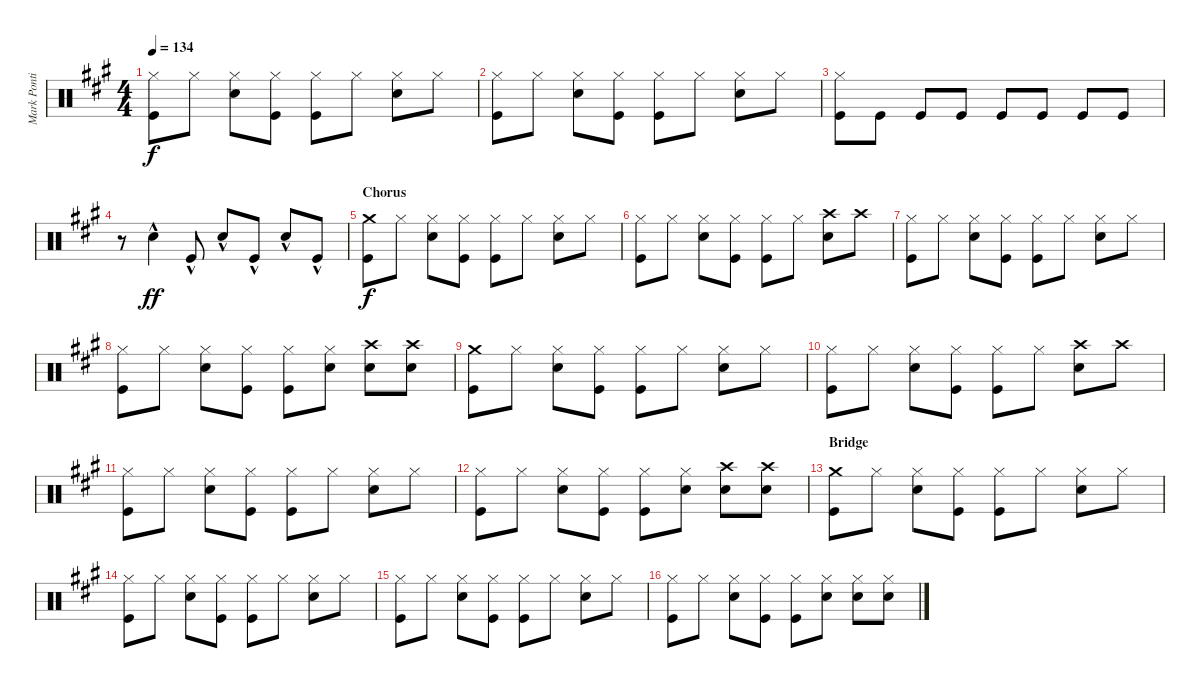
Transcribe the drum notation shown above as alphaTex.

\track ("Mark Pontius" "Mark Ponti") {instrument percussion}
\staff {score}
\articulation defaults
\ts (4 4)
\tempo 134
\clef neutral
\ks a
("Kick (hit)" "Hi-Hat (closed)").8{dy f} "Hi-Hat (closed)".8 ("Hi-Hat (closed)" "Snare (hit) 2").8 ("Hi-Hat (closed)" "Kick (hit)").8 ("Hi-Hat (closed)" "Kick (hit)").8 "Hi-Hat (closed)".8 ("Hi-Hat (closed)" "Snare (hit) 2").8 "Hi-Hat (closed)".8 |
("Hi-Hat (closed)" "Kick (hit)").8 "Hi-Hat (closed)".8 ("Hi-Hat (closed)" "Snare (hit) 2").8 ("Hi-Hat (closed)" "Kick (hit)").8 ("Hi-Hat (closed)" "Kick (hit)").8 "Hi-Hat (closed)".8 ("Hi-Hat (closed)" "Snare (hit) 2").8 "Hi-Hat (closed)".8 |
("Kick (hit)" "Hi-Hat (closed)").8 "Kick (hit)".8 "Kick (hit)".8 "Kick (hit)".8 "Kick (hit)".8 "Kick (hit)".8 "Kick (hit)".8 "Kick (hit)".8 |
r.8 "Snare (hit) 2"{hac}.4{dy ff} "Kick (hit)"{hac}.8 "Snare (hit) 2"{hac}.8 "Kick (hit)"{hac}.8 "Snare (hit) 2"{hac}.8 "Kick (hit)"{hac}.8 |
\section ("" "Chorus")
("Crash medium (hit)" "Kick (hit)").8{dy f} "Hi-Hat (closed)".8 ("Hi-Hat (closed)" "Snare (hit) 2").8 ("Hi-Hat (closed)" "Kick (hit)").8 ("Hi-Hat (closed)" "Kick (hit)").8 "Hi-Hat (closed)".8 ("Hi-Hat (closed)" "Snare (hit) 2").8 "Hi-Hat (closed)".8 |
("Hi-Hat (closed)" "Kick (hit)").8 "Hi-Hat (closed)".8 ("Hi-Hat (closed)" "Snare (hit) 2").8 ("Hi-Hat (closed)" "Kick (hit)").8 ("Hi-Hat (closed)" "Kick (hit)").8 "Hi-Hat (closed)".8 ("Snare (hit) 2" "Crash high (hit)").8 "Crash high (hit)".8 |
("Hi-Hat (closed)" "Kick (hit)").8 "Hi-Hat (closed)".8 ("Hi-Hat (closed)" "Snare (hit) 2").8 ("Hi-Hat (closed)" "Kick (hit)").8 ("Hi-Hat (closed)" "Kick (hit)").8 "Hi-Hat (closed)".8 ("Hi-Hat (closed)" "Snare (hit) 2").8 "Hi-Hat (closed)".8 |
("Hi-Hat (closed)" "Kick (hit)").8 "Hi-Hat (closed)".8 ("Hi-Hat (closed)" "Snare (hit) 2").8 ("Hi-Hat (closed)" "Kick (hit)").8 ("Hi-Hat (closed)" "Kick (hit)").8 ("Hi-Hat (closed)" "Snare (hit) 2").8 ("Snare (hit) 2" "Crash high (hit)").8 ("Snare (hit) 2" "Crash high (hit)").8 |
("Crash medium (hit)" "Kick (hit)").8 "Hi-Hat (closed)".8 ("Hi-Hat (closed)" "Snare (hit) 2").8 ("Hi-Hat (closed)" "Kick (hit)").8 ("Hi-Hat (closed)" "Kick (hit)").8 "Hi-Hat (closed)".8 ("Hi-Hat (closed)" "Snare (hit) 2").8 "Hi-Hat (closed)".8 |
("Hi-Hat (closed)" "Kick (hit)").8 "Hi-Hat (closed)".8 ("Hi-Hat (closed)" "Snare (hit) 2").8 ("Hi-Hat (closed)" "Kick (hit)").8 ("Hi-Hat (closed)" "Kick (hit)").8 "Hi-Hat (closed)".8 ("Snare (hit) 2" "Crash high (hit)").8 "Crash high (hit)".8 |
("Hi-Hat (closed)" "Kick (hit)").8 "Hi-Hat (closed)".8 ("Hi-Hat (closed)" "Snare (hit) 2").8 ("Hi-Hat (closed)" "Kick (hit)").8 ("Hi-Hat (closed)" "Kick (hit)").8 "Hi-Hat (closed)".8 ("Hi-Hat (closed)" "Snare (hit) 2").8 "Hi-Hat (closed)".8 |
("Hi-Hat (closed)" "Kick (hit)").8 "Hi-Hat (closed)".8 ("Hi-Hat (closed)" "Snare (hit) 2").8 ("Hi-Hat (closed)" "Kick (hit)").8 ("Hi-Hat (closed)" "Kick (hit)").8 ("Hi-Hat (closed)" "Snare (hit) 2").8 ("Snare (hit) 2" "Crash high (hit)").8 ("Snare (hit) 2" "Crash high (hit)").8 |
\section ("" "Bridge")
("Crash medium (hit)" "Kick (hit)").8 "Hi-Hat (closed)".8 ("Hi-Hat (closed)" "Snare (hit) 2").8 ("Hi-Hat (closed)" "Kick (hit)").8 ("Hi-Hat (closed)" "Kick (hit)").8 "Hi-Hat (closed)".8 ("Hi-Hat (closed)" "Snare (hit) 2").8 "Hi-Hat (closed)".8 |
("Hi-Hat (closed)" "Kick (hit)").8 "Hi-Hat (closed)".8 ("Hi-Hat (closed)" "Snare (hit) 2").8 ("Hi-Hat (closed)" "Kick (hit)").8 ("Hi-Hat (closed)" "Kick (hit)").8 "Hi-Hat (closed)".8 ("Hi-Hat (closed)" "Snare (hit) 2").8 "Hi-Hat (closed)".8 |
("Hi-Hat (closed)" "Kick (hit)").8 "Hi-Hat (closed)".8 ("Hi-Hat (closed)" "Snare (hit) 2").8 ("Hi-Hat (closed)" "Kick (hit)").8 ("Hi-Hat (closed)" "Kick (hit)").8 "Hi-Hat (closed)".8 ("Hi-Hat (closed)" "Snare (hit) 2").8 "Hi-Hat (closed)".8 |
("Hi-Hat (closed)" "Kick (hit)").8 "Hi-Hat (closed)".8 ("Hi-Hat (closed)" "Snare (hit) 2").8 ("Hi-Hat (closed)" "Kick (hit)").8 ("Hi-Hat (closed)" "Kick (hit)").8 ("Hi-Hat (closed)" "Snare (hit) 2").8 ("Hi-Hat (closed)" "Snare (hit) 2").8 ("Hi-Hat (closed)" "Snare (hit) 2").8
